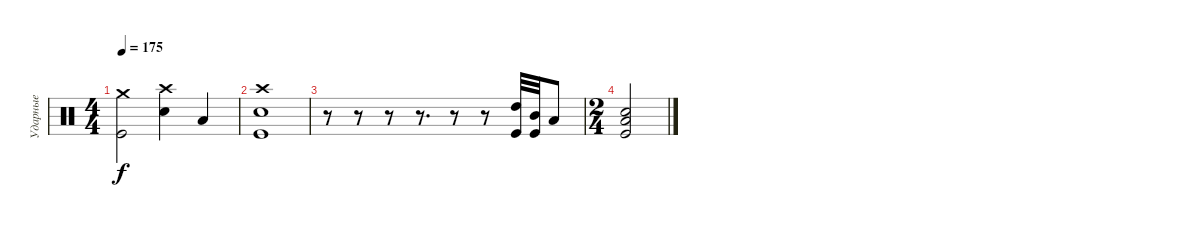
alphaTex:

\track ("Ударные" "Ударные") {instrument percussion}
\staff {score}
\articulation defaults
\ts (4 4)
\tempo 175
\clef neutral
\ks c
("Crash medium (hit)" "Kick (hit)").2{dy f} ("Crash high (hit)" "Electric Snare (hit)").4 "Low Tom (hit)".4 |
("Crash high (hit)" "Electric Snare (hit)" "Kick (hit)").1 |
r.8 r.8 r.8 r.8{d} r.8 r.8 ("High Tom (hit)" "Kick (hit)").32 ("Mid Tom (hit)" "Kick (hit)").32 "Low Tom (hit)".8 |
\ts (2 4)
("Electric Snare (hit)" "Low Tom (hit)" "Kick (hit)").2
